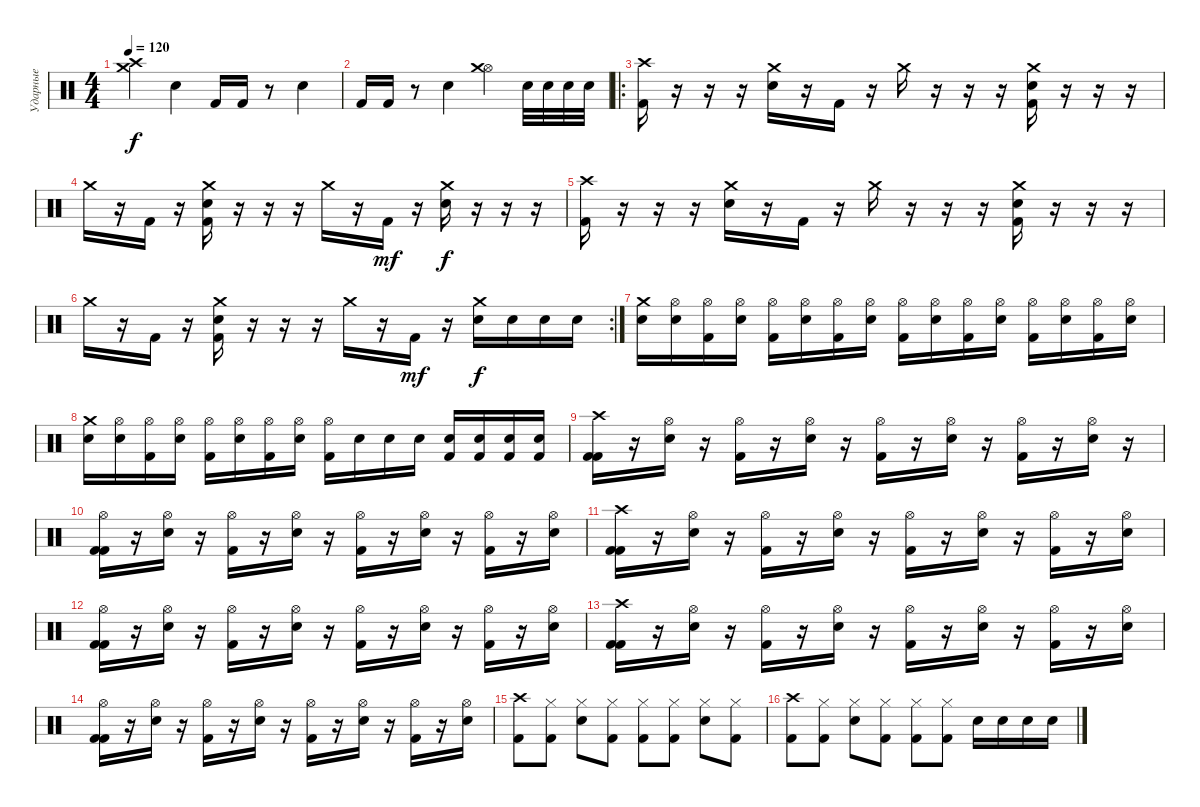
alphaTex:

\track ("Ударные" "Ударные") {instrument percussion}
\staff {score}
\articulation defaults
\ts (4 4)
\tempo 120
\clef neutral
\ks c
("Crash high (hit)" "Crash medium (hit)").4{dy f} "Electric Snare (hit)".4 "Kick (hit) 2".16 "Kick (hit) 2".16 r.8 "Electric Snare (hit)".4 |
"Kick (hit) 2".16 "Kick (hit) 2".16 r.8 "Electric Snare (hit)".4 ("Hi-Hat (open)" "Crash medium (hit)").4 "Electric Snare (hit)".32 "Electric Snare (hit)".32 "Electric Snare (hit)".32 "Electric Snare (hit)".32 |
\ro
("Crash high (hit)" "Kick (hit) 2").16 r.16 r.16 r.16 ("Crash medium (hit)" "Electric Snare (hit)").16 r.16 "Kick (hit) 2".16 r.16 "Crash medium (hit)".16 r.16 r.16 r.16 ("Crash medium (hit)" "Electric Snare (hit)" "Kick (hit) 2").16 r.16 r.16 r.16 |
"Crash medium (hit)".16 r.16 "Kick (hit) 2".16 r.16 ("Crash medium (hit)" "Electric Snare (hit)" "Kick (hit) 2").16 r.16 r.16 r.16 "Crash medium (hit)".16 r.16 "Kick (hit) 2".16{dy mf} r.16 ("Crash medium (hit)" "Electric Snare (hit)").16{dy f} r.16 r.16 r.16 |
("Crash high (hit)" "Kick (hit) 2").16 r.16 r.16 r.16 ("Crash medium (hit)" "Electric Snare (hit)").16 r.16 "Kick (hit) 2".16 r.16 "Crash medium (hit)".16 r.16 r.16 r.16 ("Crash medium (hit)" "Electric Snare (hit)" "Kick (hit) 2").16 r.16 r.16 r.16 |
\rc 2 "Crash medium (hit)".16
r.16 "Kick (hit) 2".16 r.16 ("Crash medium (hit)" "Electric Snare (hit)" "Kick (hit) 2").16 r.16 r.16 r.16 "Crash medium (hit)".16 r.16 "Kick (hit) 2".16{dy mf} r.16 ("Crash medium (hit)" "Electric Snare (hit)").16{dy f} "Electric Snare (hit)".16 "Electric Snare (hit)".16 "Electric Snare (hit)".16 |
("Crash medium (hit)" "Snare (hit) 2").16 ("Hi-Hat (open)" "Electric Snare (hit)").16 ("Hi-Hat (open)" "Kick (hit) 2").16 ("Hi-Hat (open)" "Electric Snare (hit)").16 ("Hi-Hat (open)" "Kick (hit) 2").16 ("Hi-Hat (open)" "Electric Snare (hit)").16 ("Hi-Hat (open)" "Kick (hit) 2").16 ("Hi-Hat (open)" "Electric Snare (hit)").16 ("Hi-Hat (open)" "Kick (hit) 2").16 ("Hi-Hat (open)" "Electric Snare (hit)").16 ("Hi-Hat (open)" "Kick (hit) 2").16 ("Hi-Hat (open)" "Electric Snare (hit)").16 ("Hi-Hat (open)" "Kick (hit) 2").16 ("Hi-Hat (open)" "Electric Snare (hit)").16 ("Hi-Hat (open)" "Kick (hit) 2").16 ("Hi-Hat (open)" "Electric Snare (hit)").16 |
("Crash medium (hit)" "Snare (hit) 2").16 ("Hi-Hat (open)" "Electric Snare (hit)").16 ("Hi-Hat (open)" "Kick (hit) 2").16 ("Hi-Hat (open)" "Electric Snare (hit)").16 ("Hi-Hat (open)" "Kick (hit) 2").16 ("Hi-Hat (open)" "Electric Snare (hit)").16 ("Hi-Hat (open)" "Kick (hit) 2").16 ("Hi-Hat (open)" "Electric Snare (hit)").16 ("Hi-Hat (open)" "Kick (hit) 2").16 "Electric Snare (hit)".16 "Electric Snare (hit)".16 "Electric Snare (hit)".16 ("Kick (hit) 2" "Electric Snare (hit)").16 ("Kick (hit) 2" "Electric Snare (hit)").16 ("Kick (hit) 2" "Electric Snare (hit)").16 ("Kick (hit) 2" "Electric Snare (hit)").16 |
("Crash high (hit)" "Kick (hit) 2" "Kick (hit) 2").16 r.16 ("Hi-Hat (open)" "Electric Snare (hit)").16 r.16 ("Hi-Hat (open)" "Kick (hit) 2").16 r.16 ("Hi-Hat (open)" "Electric Snare (hit)").16 r.16 ("Hi-Hat (open)" "Kick (hit) 2").16 r.16 ("Hi-Hat (open)" "Electric Snare (hit)").16 r.16 ("Hi-Hat (open)" "Kick (hit) 2").16 r.16 ("Hi-Hat (open)" "Electric Snare (hit)").16 r.16 |
("Hi-Hat (open)" "Kick (hit) 2" "Kick (hit) 2").16 r.16 ("Hi-Hat (open)" "Electric Snare (hit)").16 r.16 ("Hi-Hat (open)" "Kick (hit) 2").16 r.16 ("Hi-Hat (open)" "Electric Snare (hit)").16 r.16 ("Hi-Hat (open)" "Kick (hit) 2").16 r.16 ("Hi-Hat (open)" "Electric Snare (hit)").16 r.16 ("Hi-Hat (open)" "Kick (hit) 2").16 r.16 ("Hi-Hat (open)" "Electric Snare (hit)").16 |
("Crash high (hit)" "Kick (hit) 2" "Kick (hit) 2").16 r.16 ("Hi-Hat (open)" "Electric Snare (hit)").16 r.16 ("Hi-Hat (open)" "Kick (hit) 2").16 r.16 ("Hi-Hat (open)" "Electric Snare (hit)").16 r.16 ("Hi-Hat (open)" "Kick (hit) 2").16 r.16 ("Hi-Hat (open)" "Electric Snare (hit)").16 r.16 ("Hi-Hat (open)" "Kick (hit) 2").16 r.16 ("Hi-Hat (open)" "Electric Snare (hit)").16 |
("Hi-Hat (open)" "Kick (hit) 2" "Kick (hit) 2").16 r.16 ("Hi-Hat (open)" "Electric Snare (hit)").16 r.16 ("Hi-Hat (open)" "Kick (hit) 2").16 r.16 ("Hi-Hat (open)" "Electric Snare (hit)").16 r.16 ("Hi-Hat (open)" "Kick (hit) 2").16 r.16 ("Hi-Hat (open)" "Electric Snare (hit)").16 r.16 ("Hi-Hat (open)" "Kick (hit) 2").16 r.16 ("Hi-Hat (open)" "Electric Snare (hit)").16 |
("Crash high (hit)" "Kick (hit) 2" "Kick (hit) 2").16 r.16 ("Hi-Hat (open)" "Electric Snare (hit)").16 r.16 ("Hi-Hat (open)" "Kick (hit) 2").16 r.16 ("Hi-Hat (open)" "Electric Snare (hit)").16 r.16 ("Hi-Hat (open)" "Kick (hit) 2").16 r.16 ("Hi-Hat (open)" "Electric Snare (hit)").16 r.16 ("Hi-Hat (open)" "Kick (hit) 2").16 r.16 ("Hi-Hat (open)" "Electric Snare (hit)").16 |
("Hi-Hat (open)" "Kick (hit) 2" "Kick (hit) 2").16 r.16 ("Hi-Hat (open)" "Electric Snare (hit)").16 r.16 ("Hi-Hat (open)" "Kick (hit) 2").16 r.16 ("Hi-Hat (open)" "Electric Snare (hit)").16 r.16 ("Hi-Hat (open)" "Kick (hit) 2").16 r.16 ("Hi-Hat (open)" "Electric Snare (hit)").16 r.16 ("Hi-Hat (open)" "Kick (hit) 2").16 r.16 ("Hi-Hat (open)" "Electric Snare (hit)").16 |
("Kick (hit) 2" "Crash high (hit)").8 ("Hi-Hat (closed)" "Kick (hit) 2").8 ("Hi-Hat (closed)" "Electric Snare (hit)").8 ("Hi-Hat (closed)" "Kick (hit) 2").8 ("Hi-Hat (closed)" "Kick (hit) 2").8 ("Hi-Hat (closed)" "Kick (hit) 2").8 ("Hi-Hat (closed)" "Electric Snare (hit)").8 ("Hi-Hat (closed)" "Kick (hit) 2").8 |
("Kick (hit) 2" "Crash high (hit)").8 ("Hi-Hat (closed)" "Kick (hit) 2").8 ("Hi-Hat (closed)" "Electric Snare (hit)").8 ("Hi-Hat (closed)" "Kick (hit) 2").8 ("Hi-Hat (closed)" "Kick (hit) 2").8 ("Hi-Hat (closed)" "Kick (hit) 2").8 "Electric Snare (hit)".16 "Electric Snare (hit)".16 "Electric Snare (hit)".16 "Electric Snare (hit)".16
